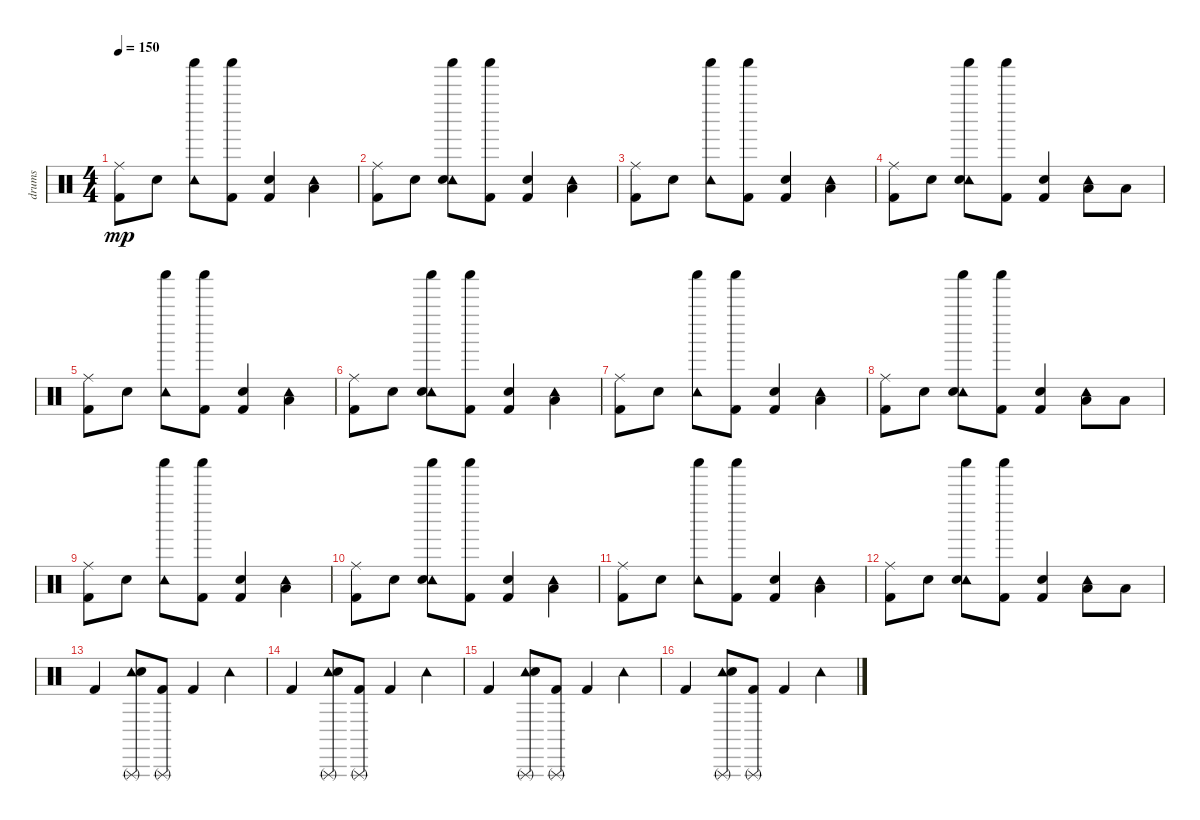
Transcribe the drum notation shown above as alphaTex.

\track ("drums" "drums") {instrument percussion}
\staff {score}
\articulation defaults
\ts (4 4)
\tempo 150
\clef neutral
\ks c
("Ride (middle)" "Kick (hit) 2").8{dy mp} "Snare (hit) 2".8 ("Shaker (hit)" "Tambourine (hit)").8 ("Shaker (hit)" "Kick (hit) 2").8 ("Kick (hit) 2" "Snare (hit) 2").4 ("Tambourine (hit)" "Low Tom (hit)").4 |
("Ride (middle)" "Kick (hit) 2").8 "Snare (hit) 2".8 ("Shaker (hit)" "Tambourine (hit)" "Snare (hit) 2").8 ("Shaker (hit)" "Kick (hit) 2").8 ("Kick (hit) 2" "Snare (hit) 2").4 ("Tambourine (hit)" "Low Tom (hit)").4 |
("Ride (middle)" "Kick (hit) 2").8 "Snare (hit) 2".8 ("Shaker (hit)" "Tambourine (hit)").8 ("Shaker (hit)" "Kick (hit) 2").8 ("Kick (hit) 2" "Snare (hit) 2").4 ("Tambourine (hit)" "Low Tom (hit)").4 |
("Ride (middle)" "Kick (hit) 2").8 "Snare (hit) 2".8 ("Shaker (hit)" "Tambourine (hit)" "Snare (hit) 2").8 ("Shaker (hit)" "Kick (hit) 2").8 ("Kick (hit) 2" "Snare (hit) 2").4 ("Tambourine (hit)" "Low Tom (hit)").8 "Low Tom (hit)".8 |
("Ride (middle)" "Kick (hit) 2").8 "Snare (hit) 2".8 ("Shaker (hit)" "Tambourine (hit)").8 ("Shaker (hit)" "Kick (hit) 2").8 ("Kick (hit) 2" "Snare (hit) 2").4 ("Tambourine (hit)" "Low Tom (hit)").4 |
("Ride (middle)" "Kick (hit) 2").8 "Snare (hit) 2".8 ("Shaker (hit)" "Tambourine (hit)" "Snare (hit) 2").8 ("Shaker (hit)" "Kick (hit) 2").8 ("Kick (hit) 2" "Snare (hit) 2").4 ("Tambourine (hit)" "Low Tom (hit)").4 |
("Ride (middle)" "Kick (hit) 2").8 "Snare (hit) 2".8 ("Shaker (hit)" "Tambourine (hit)").8 ("Shaker (hit)" "Kick (hit) 2").8 ("Kick (hit) 2" "Snare (hit) 2").4 ("Tambourine (hit)" "Low Tom (hit)").4 |
("Ride (middle)" "Kick (hit) 2").8 "Snare (hit) 2".8 ("Shaker (hit)" "Tambourine (hit)" "Snare (hit) 2").8 ("Shaker (hit)" "Kick (hit) 2").8 ("Kick (hit) 2" "Snare (hit) 2").4 ("Tambourine (hit)" "Low Tom (hit)").8 "Low Tom (hit)".8 |
("Ride (middle)" "Kick (hit) 2").8 "Snare (hit) 2".8 ("Shaker (hit)" "Tambourine (hit)").8 ("Shaker (hit)" "Kick (hit) 2").8 ("Kick (hit) 2" "Snare (hit) 2").4 ("Tambourine (hit)" "Low Tom (hit)").4 |
("Ride (middle)" "Kick (hit) 2").8 "Snare (hit) 2".8 ("Shaker (hit)" "Tambourine (hit)" "Snare (hit) 2").8 ("Shaker (hit)" "Kick (hit) 2").8 ("Kick (hit) 2" "Snare (hit) 2").4 ("Tambourine (hit)" "Low Tom (hit)").4 |
("Ride (middle)" "Kick (hit) 2").8 "Snare (hit) 2".8 ("Shaker (hit)" "Tambourine (hit)").8 ("Shaker (hit)" "Kick (hit) 2").8 ("Kick (hit) 2" "Snare (hit) 2").4 ("Tambourine (hit)" "Low Tom (hit)").4 |
("Ride (middle)" "Kick (hit) 2").8 "Snare (hit) 2".8 ("Shaker (hit)" "Tambourine (hit)" "Snare (hit) 2").8 ("Shaker (hit)" "Kick (hit) 2").8 ("Kick (hit) 2" "Snare (hit) 2").4 ("Tambourine (hit)" "Low Tom (hit)").8 "Low Tom (hit)".8 |
"Kick (hit) 2".4 ("Triangle (rnute)" "Tambourine (hit)" "Snare (hit) 2").8 ("Triangle (rnute)" "Kick (hit) 2").8 "Kick (hit) 2".4 "Tambourine (hit)".4 |
"Kick (hit) 2".4 ("Triangle (rnute)" "Tambourine (hit)" "Snare (hit) 2").8 ("Triangle (rnute)" "Kick (hit) 2").8 "Kick (hit) 2".4 "Tambourine (hit)".4 |
"Kick (hit) 2".4 ("Triangle (rnute)" "Tambourine (hit)" "Snare (hit) 2").8 ("Triangle (rnute)" "Kick (hit) 2").8 "Kick (hit) 2".4 "Tambourine (hit)".4 |
"Kick (hit) 2".4 ("Triangle (rnute)" "Tambourine (hit)" "Snare (hit) 2").8 ("Triangle (rnute)" "Kick (hit) 2").8 "Kick (hit) 2".4 "Tambourine (hit)".4
